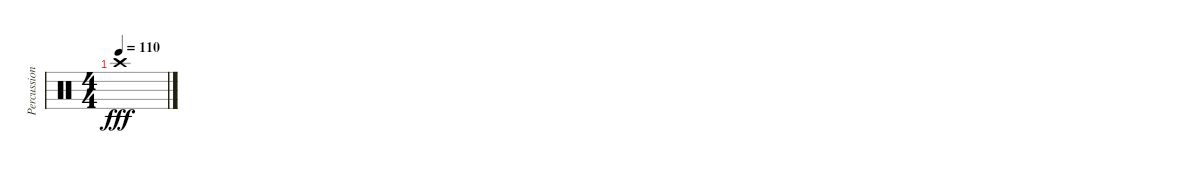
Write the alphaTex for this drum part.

\track ("Percussion" "Percussion") {instrument percussion}
\staff {score}
\articulation defaults
\ts (4 4)
\tempo 110
\clef neutral
\ks c "Crash high (hit)".1{dy fff}
